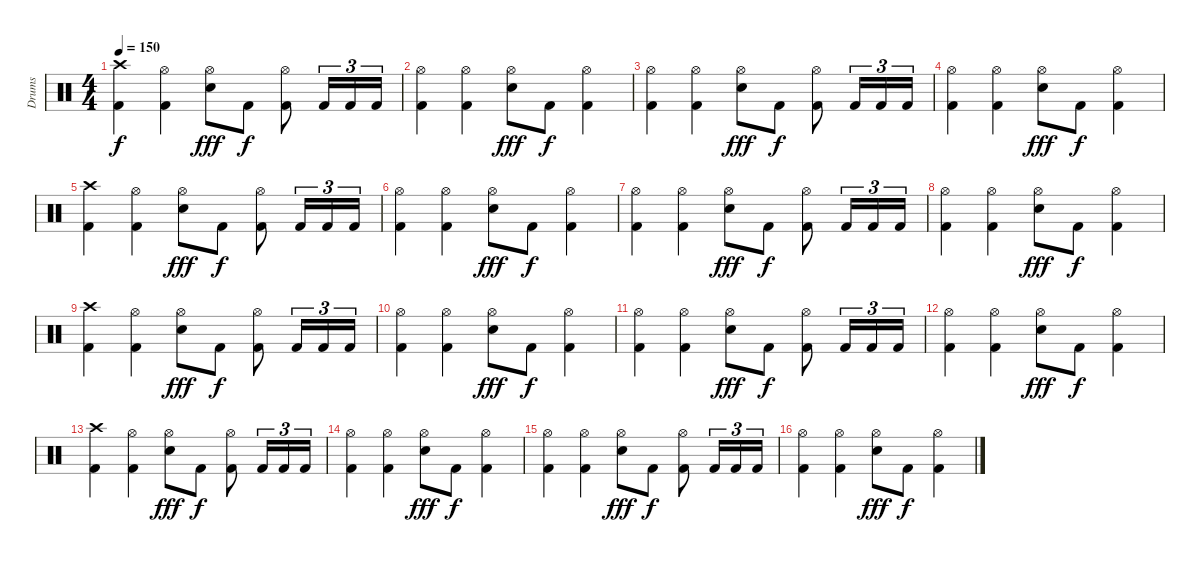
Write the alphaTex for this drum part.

\track ("Drums" "Drums") {instrument percussion}
\staff {score}
\articulation defaults
\ts (4 4)
\tempo 150
\clef neutral
\ks c
("Crash high (hit)" "Kick (hit) 2").4{dy f volume 11} ("Hi-Hat (open)" "Kick (hit) 2").4 ("Hi-Hat (open)" "Snare (hit) 2").8{dy fff} "Kick (hit) 2".8{dy f} ("Hi-Hat (open)" "Kick (hit) 2").8 "Kick (hit) 2".16{tu (3 2)} "Kick (hit) 2".16{tu (3 2)} "Kick (hit) 2".16{tu (3 2)} |
("Hi-Hat (open)" "Kick (hit) 2").4 ("Hi-Hat (open)" "Kick (hit) 2").4 ("Hi-Hat (open)" "Snare (hit) 2").8{dy fff} "Kick (hit) 2".8{dy f} ("Hi-Hat (open)" "Kick (hit) 2").4 |
("Hi-Hat (open)" "Kick (hit) 2").4{volume 12} ("Hi-Hat (open)" "Kick (hit) 2").4 ("Hi-Hat (open)" "Snare (hit) 2").8{dy fff} "Kick (hit) 2".8{dy f} ("Hi-Hat (open)" "Kick (hit) 2").8 "Kick (hit) 2".16{tu (3 2)} "Kick (hit) 2".16{tu (3 2)} "Kick (hit) 2".16{tu (3 2)} |
("Hi-Hat (open)" "Kick (hit) 2").4 ("Hi-Hat (open)" "Kick (hit) 2").4 ("Hi-Hat (open)" "Snare (hit) 2").8{dy fff} "Kick (hit) 2".8{dy f} ("Hi-Hat (open)" "Kick (hit) 2").4 |
("Crash high (hit)" "Kick (hit) 2").4{volume 8} ("Hi-Hat (open)" "Kick (hit) 2").4 ("Hi-Hat (open)" "Snare (hit) 2").8{dy fff} "Kick (hit) 2".8{dy f} ("Hi-Hat (open)" "Kick (hit) 2").8 "Kick (hit) 2".16{tu (3 2)} "Kick (hit) 2".16{tu (3 2)} "Kick (hit) 2".16{tu (3 2)} |
("Hi-Hat (open)" "Kick (hit) 2").4 ("Hi-Hat (open)" "Kick (hit) 2").4 ("Hi-Hat (open)" "Snare (hit) 2").8{dy fff} "Kick (hit) 2".8{dy f} ("Hi-Hat (open)" "Kick (hit) 2").4 |
("Hi-Hat (open)" "Kick (hit) 2").4{volume 6} ("Hi-Hat (open)" "Kick (hit) 2").4 ("Hi-Hat (open)" "Snare (hit) 2").8{dy fff} "Kick (hit) 2".8{dy f} ("Hi-Hat (open)" "Kick (hit) 2").8 "Kick (hit) 2".16{tu (3 2)} "Kick (hit) 2".16{tu (3 2)} "Kick (hit) 2".16{tu (3 2)} |
("Hi-Hat (open)" "Kick (hit) 2").4 ("Hi-Hat (open)" "Kick (hit) 2").4 ("Hi-Hat (open)" "Snare (hit) 2").8{dy fff} "Kick (hit) 2".8{dy f} ("Hi-Hat (open)" "Kick (hit) 2").4 |
("Crash high (hit)" "Kick (hit) 2").4{volume 5} ("Hi-Hat (open)" "Kick (hit) 2").4 ("Hi-Hat (open)" "Snare (hit) 2").8{dy fff} "Kick (hit) 2".8{dy f} ("Hi-Hat (open)" "Kick (hit) 2").8 "Kick (hit) 2".16{tu (3 2)} "Kick (hit) 2".16{tu (3 2)} "Kick (hit) 2".16{tu (3 2)} |
("Hi-Hat (open)" "Kick (hit) 2").4 ("Hi-Hat (open)" "Kick (hit) 2").4 ("Hi-Hat (open)" "Snare (hit) 2").8{dy fff} "Kick (hit) 2".8{dy f} ("Hi-Hat (open)" "Kick (hit) 2").4 |
("Hi-Hat (open)" "Kick (hit) 2").4{volume 4} ("Hi-Hat (open)" "Kick (hit) 2").4 ("Hi-Hat (open)" "Snare (hit) 2").8{dy fff} "Kick (hit) 2".8{dy f} ("Hi-Hat (open)" "Kick (hit) 2").8 "Kick (hit) 2".16{tu (3 2)} "Kick (hit) 2".16{tu (3 2)} "Kick (hit) 2".16{tu (3 2)} |
("Hi-Hat (open)" "Kick (hit) 2").4 ("Hi-Hat (open)" "Kick (hit) 2").4 ("Hi-Hat (open)" "Snare (hit) 2").8{dy fff} "Kick (hit) 2".8{dy f} ("Hi-Hat (open)" "Kick (hit) 2").4 |
("Crash high (hit)" "Kick (hit) 2").4{volume 3} ("Hi-Hat (open)" "Kick (hit) 2").4 ("Hi-Hat (open)" "Snare (hit) 2").8{dy fff} "Kick (hit) 2".8{dy f} ("Hi-Hat (open)" "Kick (hit) 2").8 "Kick (hit) 2".16{tu (3 2)} "Kick (hit) 2".16{tu (3 2)} "Kick (hit) 2".16{tu (3 2)} |
("Hi-Hat (open)" "Kick (hit) 2").4 ("Hi-Hat (open)" "Kick (hit) 2").4 ("Hi-Hat (open)" "Snare (hit) 2").8{dy fff} "Kick (hit) 2".8{dy f} ("Hi-Hat (open)" "Kick (hit) 2").4 |
("Hi-Hat (open)" "Kick (hit) 2").4{volume 0} ("Hi-Hat (open)" "Kick (hit) 2").4 ("Hi-Hat (open)" "Snare (hit) 2").8{dy fff} "Kick (hit) 2".8{dy f} ("Hi-Hat (open)" "Kick (hit) 2").8 "Kick (hit) 2".16{tu (3 2)} "Kick (hit) 2".16{tu (3 2)} "Kick (hit) 2".16{tu (3 2)} |
("Hi-Hat (open)" "Kick (hit) 2").4 ("Hi-Hat (open)" "Kick (hit) 2").4 ("Hi-Hat (open)" "Snare (hit) 2").8{dy fff} "Kick (hit) 2".8{dy f} ("Hi-Hat (open)" "Kick (hit) 2").4
